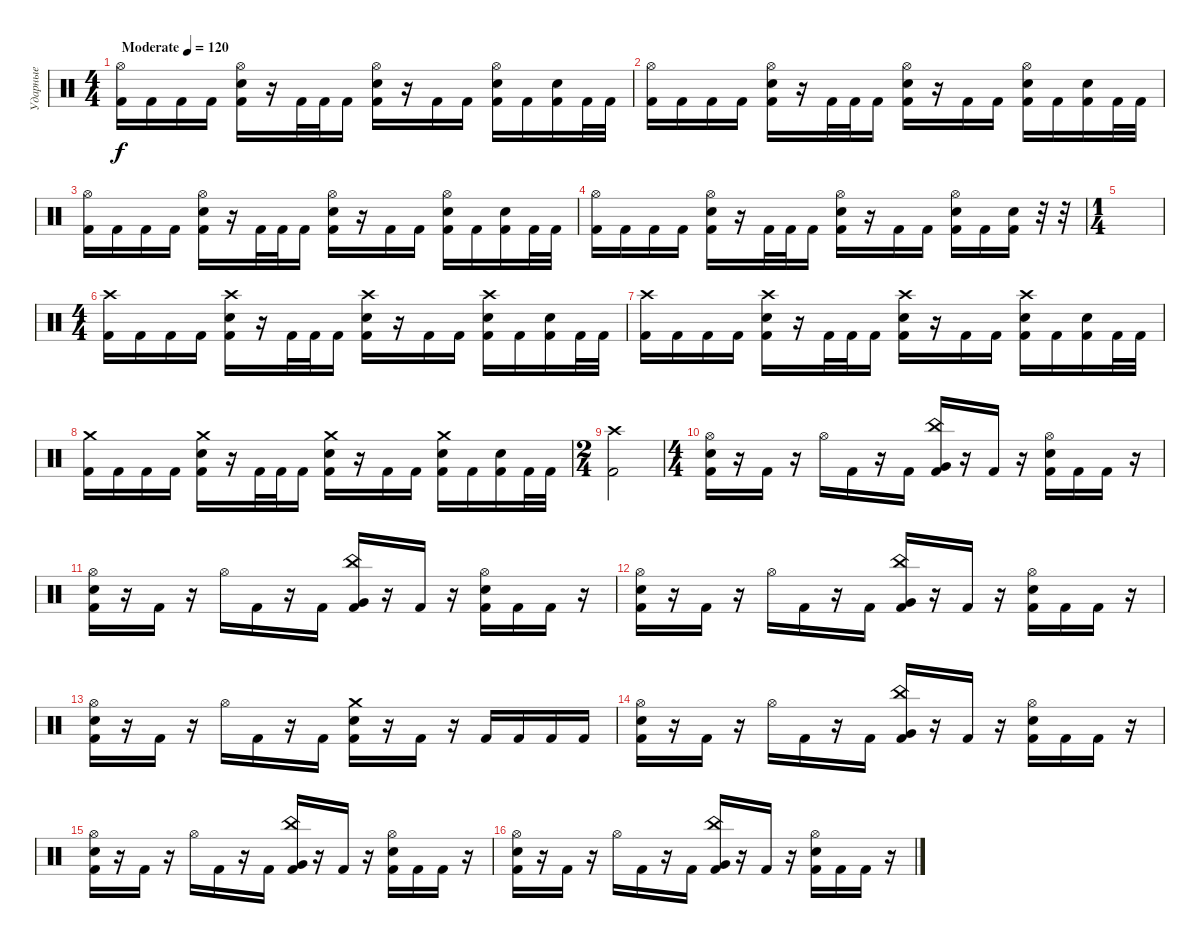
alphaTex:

\track ("Ударные" "Ударные") {instrument percussion}
\staff {score}
\articulation defaults
\ts (4 4)
\tempo (120 "Moderate")
\clef neutral
\ks c
("Hi-Hat (open)" "Kick (hit) 2").16{dy f} "Kick (hit) 2".16 "Kick (hit) 2".16 "Kick (hit) 2".16 ("Hi-Hat (open)" "Electric Snare (hit)" "Kick (hit) 2").16 r.16 "Kick (hit) 2".32 "Kick (hit) 2".32 "Kick (hit) 2".16 ("Hi-Hat (open)" "Electric Snare (hit)" "Kick (hit) 2").16 r.16 "Kick (hit) 2".16 "Kick (hit) 2".16 ("Hi-Hat (open)" "Electric Snare (hit)" "Kick (hit) 2").16 "Kick (hit) 2".16 ("Electric Snare (hit)" "Kick (hit) 2").16 "Kick (hit) 2".32 "Kick (hit) 2".32 |
("Hi-Hat (open)" "Kick (hit) 2").16 "Kick (hit) 2".16 "Kick (hit) 2".16 "Kick (hit) 2".16 ("Hi-Hat (open)" "Electric Snare (hit)" "Kick (hit) 2").16 r.16 "Kick (hit) 2".32 "Kick (hit) 2".32 "Kick (hit) 2".16 ("Hi-Hat (open)" "Electric Snare (hit)" "Kick (hit) 2").16 r.16 "Kick (hit) 2".16 "Kick (hit) 2".16 ("Hi-Hat (open)" "Electric Snare (hit)" "Kick (hit) 2").16 "Kick (hit) 2".16 ("Electric Snare (hit)" "Kick (hit) 2").16 "Kick (hit) 2".32 "Kick (hit) 2".32 |
("Hi-Hat (open)" "Kick (hit) 2").16 "Kick (hit) 2".16 "Kick (hit) 2".16 "Kick (hit) 2".16 ("Hi-Hat (open)" "Electric Snare (hit)" "Kick (hit) 2").16 r.16 "Kick (hit) 2".32 "Kick (hit) 2".32 "Kick (hit) 2".16 ("Hi-Hat (open)" "Electric Snare (hit)" "Kick (hit) 2").16 r.16 "Kick (hit) 2".16 "Kick (hit) 2".16 ("Hi-Hat (open)" "Electric Snare (hit)" "Kick (hit) 2").16 "Kick (hit) 2".16 ("Electric Snare (hit)" "Kick (hit) 2").16 "Kick (hit) 2".32 "Kick (hit) 2".32 |
("Hi-Hat (open)" "Kick (hit) 2").16 "Kick (hit) 2".16 "Kick (hit) 2".16 "Kick (hit) 2".16 ("Hi-Hat (open)" "Electric Snare (hit)" "Kick (hit) 2").16 r.16 "Kick (hit) 2".32 "Kick (hit) 2".32 "Kick (hit) 2".16 ("Hi-Hat (open)" "Electric Snare (hit)" "Kick (hit) 2").16 r.16 "Kick (hit) 2".16 "Kick (hit) 2".16 ("Hi-Hat (open)" "Electric Snare (hit)" "Kick (hit) 2").16 "Kick (hit) 2".16 ("Electric Snare (hit)" "Kick (hit) 2").16 r.32 r.32 |
\ts (1 4)
|
\ts (4 4)
("Crash high (hit)" "Kick (hit) 2").16 "Kick (hit) 2".16 "Kick (hit) 2".16 "Kick (hit) 2".16 ("Crash high (hit)" "Electric Snare (hit)" "Kick (hit) 2").16 r.16 "Kick (hit) 2".32 "Kick (hit) 2".32 "Kick (hit) 2".16 ("Crash high (hit)" "Electric Snare (hit)" "Kick (hit) 2").16 r.16 "Kick (hit) 2".16 "Kick (hit) 2".16 ("Crash high (hit)" "Electric Snare (hit)" "Kick (hit) 2").16 "Kick (hit) 2".16 ("Electric Snare (hit)" "Kick (hit) 2").16 "Kick (hit) 2".32 "Kick (hit) 2".32 |
("Crash high (hit)" "Kick (hit) 2").16 "Kick (hit) 2".16 "Kick (hit) 2".16 "Kick (hit) 2".16 ("Crash high (hit)" "Electric Snare (hit)" "Kick (hit) 2").16 r.16 "Kick (hit) 2".32 "Kick (hit) 2".32 "Kick (hit) 2".16 ("Crash high (hit)" "Electric Snare (hit)" "Kick (hit) 2").16 r.16 "Kick (hit) 2".16 "Kick (hit) 2".16 ("Crash high (hit)" "Electric Snare (hit)" "Kick (hit) 2").16 "Kick (hit) 2".16 ("Electric Snare (hit)" "Kick (hit) 2").16 "Kick (hit) 2".32 "Kick (hit) 2".32 |
("Crash medium (hit)" "Kick (hit) 2").16 "Kick (hit) 2".16 "Kick (hit) 2".16 "Kick (hit) 2".16 ("Crash medium (hit)" "Electric Snare (hit)" "Kick (hit) 2").16 r.16 "Kick (hit) 2".32 "Kick (hit) 2".32 "Kick (hit) 2".16 ("Crash medium (hit)" "Electric Snare (hit)" "Kick (hit) 2").16 r.16 "Kick (hit) 2".16 "Kick (hit) 2".16 ("Crash medium (hit)" "Electric Snare (hit)" "Kick (hit) 2").16 "Kick (hit) 2".16 ("Electric Snare (hit)" "Kick (hit) 2").16 "Kick (hit) 2".32 "Kick (hit) 2".32 |
\ts (2 4)
("Crash high (hit)" "Kick (hit) 2").2 |
\ts (4 4)
("Hi-Hat (open)" "Electric Snare (hit)" "Kick (hit) 2").16 r.16 "Kick (hit) 2".16 r.16 "Hi-Hat (open)".16 "Kick (hit) 2".16 r.16 "Kick (hit) 2".16 ("China (hit)" "Very Low Tom (hit)" "Kick (hit) 2").16 r.16 "Kick (hit) 2".16 r.16 ("Hi-Hat (open)" "Electric Snare (hit)" "Kick (hit) 2").16 "Kick (hit) 2".16 "Kick (hit) 2".16 r.16 |
("Hi-Hat (open)" "Electric Snare (hit)" "Kick (hit) 2").16 r.16 "Kick (hit) 2".16 r.16 "Hi-Hat (open)".16 "Kick (hit) 2".16 r.16 "Kick (hit) 2".16 ("China (hit)" "Very Low Tom (hit)" "Kick (hit) 2").16 r.16 "Kick (hit) 2".16 r.16 ("Hi-Hat (open)" "Electric Snare (hit)" "Kick (hit) 2").16 "Kick (hit) 2".16 "Kick (hit) 2".16 r.16 |
("Hi-Hat (open)" "Electric Snare (hit)" "Kick (hit) 2").16 r.16 "Kick (hit) 2".16 r.16 "Hi-Hat (open)".16 "Kick (hit) 2".16 r.16 "Kick (hit) 2".16 ("China (hit)" "Very Low Tom (hit)" "Kick (hit) 2").16 r.16 "Kick (hit) 2".16 r.16 ("Hi-Hat (open)" "Electric Snare (hit)" "Kick (hit) 2").16 "Kick (hit) 2".16 "Kick (hit) 2".16 r.16 |
("Hi-Hat (open)" "Electric Snare (hit)" "Kick (hit) 2").16 r.16 "Kick (hit) 2".16 r.16 "Hi-Hat (open)".16 "Kick (hit) 2".16 r.16 "Kick (hit) 2".16 ("Crash medium (hit)" "Electric Snare (hit)" "Kick (hit) 2").16 r.16 "Kick (hit) 2".16 r.16 "Kick (hit) 2".16 "Kick (hit) 2".16 "Kick (hit) 2".16 "Kick (hit) 2".16 |
("Hi-Hat (open)" "Electric Snare (hit)" "Kick (hit) 2").16 r.16 "Kick (hit) 2".16 r.16 "Hi-Hat (open)".16 "Kick (hit) 2".16 r.16 "Kick (hit) 2".16 ("China (hit)" "Very Low Tom (hit)" "Kick (hit) 2").16 r.16 "Kick (hit) 2".16 r.16 ("Hi-Hat (open)" "Electric Snare (hit)" "Kick (hit) 2").16 "Kick (hit) 2".16 "Kick (hit) 2".16 r.16 |
("Hi-Hat (open)" "Electric Snare (hit)" "Kick (hit) 2").16 r.16 "Kick (hit) 2".16 r.16 "Hi-Hat (open)".16 "Kick (hit) 2".16 r.16 "Kick (hit) 2".16 ("China (hit)" "Very Low Tom (hit)" "Kick (hit) 2").16 r.16 "Kick (hit) 2".16 r.16 ("Hi-Hat (open)" "Electric Snare (hit)" "Kick (hit) 2").16 "Kick (hit) 2".16 "Kick (hit) 2".16 r.16 |
("Hi-Hat (open)" "Electric Snare (hit)" "Kick (hit) 2").16 r.16 "Kick (hit) 2".16 r.16 "Hi-Hat (open)".16 "Kick (hit) 2".16 r.16 "Kick (hit) 2".16 ("China (hit)" "Very Low Tom (hit)" "Kick (hit) 2").16 r.16 "Kick (hit) 2".16 r.16 ("Hi-Hat (open)" "Electric Snare (hit)" "Kick (hit) 2").16 "Kick (hit) 2".16 "Kick (hit) 2".16 r.16
